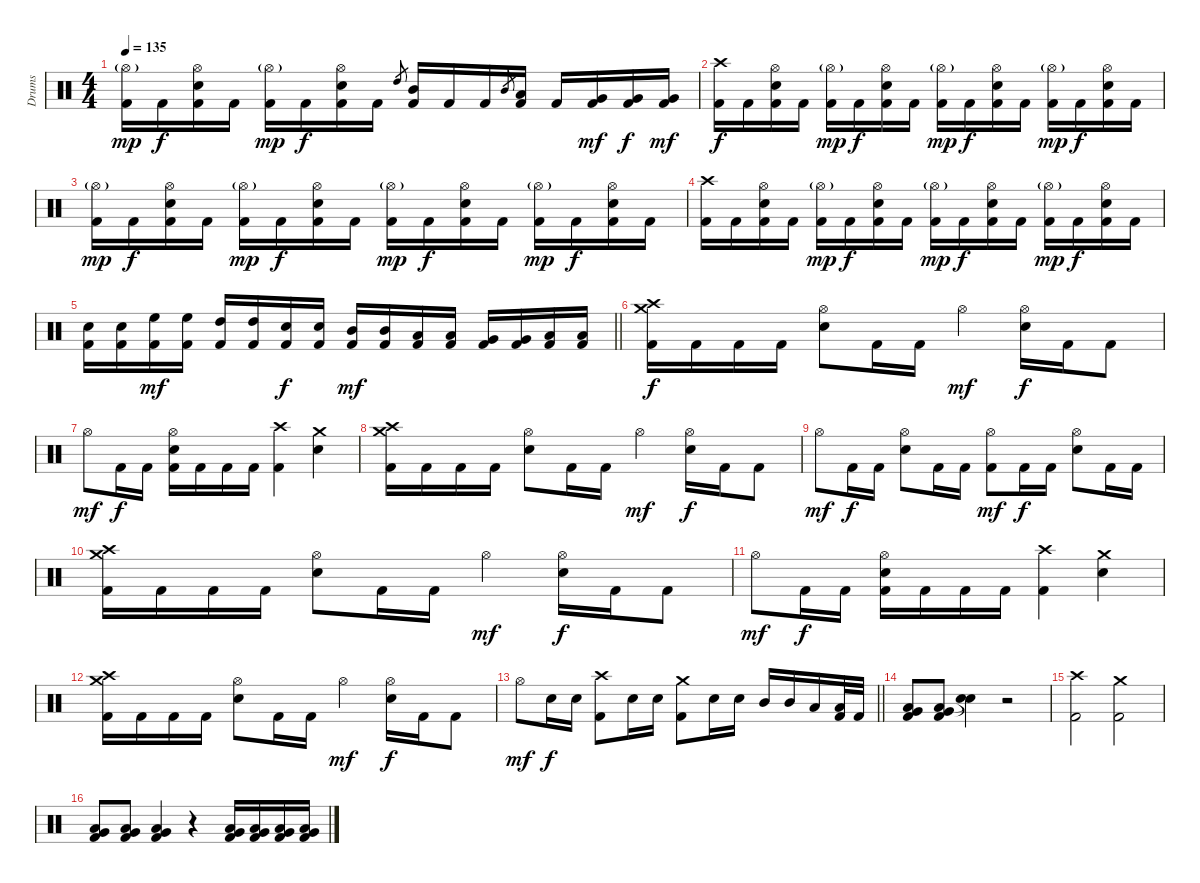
\track ("Drums" "Drums") {instrument percussion}
\staff {score}
\articulation defaults
\ts (4 4)
\tempo 135
\clef neutral
\ks c
("Hi-Hat (open)"{g} "Kick (hit) 2").16{dy mp} "Kick (hit) 2".16{dy f} ("Hi-Hat (open)" "Electric Snare (hit)" "Kick (hit) 2").16 "Kick (hit) 2".16 ("Hi-Hat (open)"{g} "Kick (hit) 2").16{dy mp} "Kick (hit) 2".16{dy f} ("Hi-Hat (open)" "Electric Snare (hit)" "Kick (hit) 2").16 "Kick (hit) 2".16 "High Tom (hit)".8{gr} ("Mid Tom (hit)" "Kick (hit) 2").16 "Kick (hit) 2".16 "Kick (hit) 2".16 "Mid Tom (hit)".8{gr} ("Low Tom (hit)" "Kick (hit) 2").16 "Kick (hit) 2".16 ("Very Low Tom (hit)" "Kick (hit) 2").16{dy mf} ("Very Low Tom (hit)" "Kick (hit) 2").16{dy f} ("Very Low Tom (hit)" "Kick (hit) 2").16{dy mf} |
("Crash high (hit)" "Kick (hit) 2").16{dy f} "Kick (hit) 2".16 ("Hi-Hat (open)" "Electric Snare (hit)" "Kick (hit) 2").16 "Kick (hit) 2".16 ("Hi-Hat (open)"{g} "Kick (hit) 2").16{dy mp} "Kick (hit) 2".16{dy f} ("Hi-Hat (open)" "Electric Snare (hit)" "Kick (hit) 2").16 "Kick (hit) 2".16 ("Hi-Hat (open)"{g} "Kick (hit) 2").16{dy mp} "Kick (hit) 2".16{dy f} ("Hi-Hat (open)" "Electric Snare (hit)" "Kick (hit) 2").16 "Kick (hit) 2".16 ("Hi-Hat (open)"{g} "Kick (hit) 2").16{dy mp} "Kick (hit) 2".16{dy f} ("Hi-Hat (open)" "Electric Snare (hit)" "Kick (hit) 2").16 "Kick (hit) 2".16 |
("Hi-Hat (open)"{g} "Kick (hit) 2").16{dy mp} "Kick (hit) 2".16{dy f} ("Hi-Hat (open)" "Electric Snare (hit)" "Kick (hit) 2").16 "Kick (hit) 2".16 ("Hi-Hat (open)"{g} "Kick (hit) 2").16{dy mp} "Kick (hit) 2".16{dy f} ("Hi-Hat (open)" "Electric Snare (hit)" "Kick (hit) 2").16 "Kick (hit) 2".16 ("Hi-Hat (open)"{g} "Kick (hit) 2").16{dy mp} "Kick (hit) 2".16{dy f} ("Hi-Hat (open)" "Electric Snare (hit)" "Kick (hit) 2").16 "Kick (hit) 2".16 ("Hi-Hat (open)"{g} "Kick (hit) 2").16{dy mp} "Kick (hit) 2".16{dy f} ("Hi-Hat (open)" "Electric Snare (hit)" "Kick (hit) 2").16 "Kick (hit) 2".16 |
("Crash high (hit)" "Kick (hit) 2").16 "Kick (hit) 2".16 ("Hi-Hat (open)" "Electric Snare (hit)" "Kick (hit) 2").16 "Kick (hit) 2".16 ("Hi-Hat (open)"{g} "Kick (hit) 2").16{dy mp} "Kick (hit) 2".16{dy f} ("Hi-Hat (open)" "Electric Snare (hit)" "Kick (hit) 2").16 "Kick (hit) 2".16 ("Hi-Hat (open)"{g} "Kick (hit) 2").16{dy mp} "Kick (hit) 2".16{dy f} ("Hi-Hat (open)" "Electric Snare (hit)" "Kick (hit) 2").16 "Kick (hit) 2".16 ("Hi-Hat (open)"{g} "Kick (hit) 2").16{dy mp} "Kick (hit) 2".16{dy f} ("Hi-Hat (open)" "Electric Snare (hit)" "Kick (hit) 2").16 "Kick (hit) 2".16 |
\barLineRight lightlight
("Electric Snare (hit)" "Kick (hit) 2").16 ("Electric Snare (hit)" "Kick (hit) 2").16 ("High Floor Tom (hit)" "Kick (hit) 2").16{dy mf} ("High Floor Tom (hit)" "Kick (hit) 2").16 ("High Tom (hit)" "Kick (hit) 2").16 ("High Tom (hit)" "Kick (hit) 2").16 ("Electric Snare (hit)" "Kick (hit) 2").16{dy f} ("Electric Snare (hit)" "Kick (hit) 2").16 ("Mid Tom (hit)" "Kick (hit) 2").16{dy mf} ("Mid Tom (hit)" "Kick (hit) 2").16 ("Low Tom (hit)" "Kick (hit) 2").16 ("Low Tom (hit)" "Kick (hit) 2").16 ("Very Low Tom (hit)" "Kick (hit) 2").16 ("Very Low Tom (hit)" "Kick (hit) 2").16 ("Low Floor Tom (hit)" "Kick (hit) 2").16 ("Low Floor Tom (hit)" "Kick (hit) 2").16 |
("Crash high (hit)" "Crash medium (hit)" "Kick (hit) 2").16{dy f} "Kick (hit) 2".16 "Kick (hit) 2".16 "Kick (hit) 2".16 ("Hi-Hat (open)" "Electric Snare (hit)").8 "Kick (hit) 2".16 "Kick (hit) 2".16 "Hi-Hat (open)".4{dy mf} ("Hi-Hat (open)" "Electric Snare (hit)").16{dy f} "Kick (hit) 2".16 "Kick (hit) 2".8 |
"Hi-Hat (open)".8{dy mf} "Kick (hit) 2".16{dy f} "Kick (hit) 2".16 ("Hi-Hat (open)" "Electric Snare (hit)" "Kick (hit) 2").16 "Kick (hit) 2".16 "Kick (hit) 2".16 "Kick (hit) 2".16 ("Crash high (hit)" "Kick (hit) 2").4 ("Crash medium (hit)" "Electric Snare (hit)").4 |
("Crash high (hit)" "Crash medium (hit)" "Kick (hit) 2").16 "Kick (hit) 2".16 "Kick (hit) 2".16 "Kick (hit) 2".16 ("Hi-Hat (open)" "Electric Snare (hit)").8 "Kick (hit) 2".16 "Kick (hit) 2".16 "Hi-Hat (open)".4{dy mf} ("Hi-Hat (open)" "Electric Snare (hit)").16{dy f} "Kick (hit) 2".16 "Kick (hit) 2".8 |
"Hi-Hat (open)".8{dy mf} "Kick (hit) 2".16{dy f} "Kick (hit) 2".16 ("Hi-Hat (open)" "Electric Snare (hit)").8 "Kick (hit) 2".16 "Kick (hit) 2".16 ("Hi-Hat (open)" "Kick (hit) 2").8{dy mf} "Kick (hit) 2".16{dy f} "Kick (hit) 2".16 ("Hi-Hat (open)" "Electric Snare (hit)").8 "Kick (hit) 2".16 "Kick (hit) 2".16 |
("Crash high (hit)" "Crash medium (hit)" "Kick (hit) 2").16 "Kick (hit) 2".16 "Kick (hit) 2".16 "Kick (hit) 2".16 ("Hi-Hat (open)" "Electric Snare (hit)").8 "Kick (hit) 2".16 "Kick (hit) 2".16 "Hi-Hat (open)".4{dy mf} ("Hi-Hat (open)" "Electric Snare (hit)").16{dy f} "Kick (hit) 2".16 "Kick (hit) 2".8 |
"Hi-Hat (open)".8{dy mf} "Kick (hit) 2".16{dy f} "Kick (hit) 2".16 ("Hi-Hat (open)" "Electric Snare (hit)" "Kick (hit) 2").16 "Kick (hit) 2".16 "Kick (hit) 2".16 "Kick (hit) 2".16 ("Crash high (hit)" "Kick (hit) 2").4 ("Crash medium (hit)" "Electric Snare (hit)").4 |
("Crash high (hit)" "Crash medium (hit)" "Kick (hit) 2").16 "Kick (hit) 2".16 "Kick (hit) 2".16 "Kick (hit) 2".16 ("Hi-Hat (open)" "Electric Snare (hit)").8 "Kick (hit) 2".16 "Kick (hit) 2".16 "Hi-Hat (open)".4{dy mf} ("Hi-Hat (open)" "Electric Snare (hit)").16{dy f} "Kick (hit) 2".16 "Kick (hit) 2".8 |
\barLineRight lightlight "Hi-Hat (open)".8{dy mf} "Electric Snare (hit)".16{dy f} "Electric Snare (hit)".16
("Crash high (hit)" "Kick (hit) 2").8 "Electric Snare (hit)".16 "Electric Snare (hit)".16 ("Crash medium (hit)" "Kick (hit) 2").8 "Electric Snare (hit)".16 "Electric Snare (hit)".16 "Mid Tom (hit)".16 "Mid Tom (hit)".16 "Low Tom (hit)".16 ("Low Tom (hit)" "Kick (hit) 2").32 "Kick (hit) 2".32 |
("Low Tom (hit)" "Very Low Tom (hit)" "Kick (hit) 2").8 ("Low Tom (hit)" "Very Low Tom (hit)" "Kick (hit) 2").8 ("Snare (hit)"{t} "Snare (hit)"{t}).4 r.2 |
("Crash high (hit)" "Kick (hit) 2").2 ("Crash medium (hit)" "Kick (hit) 2").2 |
("Low Tom (hit)" "Very Low Tom (hit)" "Kick (hit) 2").8 ("Low Tom (hit)" "Very Low Tom (hit)" "Kick (hit) 2").8 ("Low Tom (hit)" "Very Low Tom (hit)" "Kick (hit) 2").4 r.4 ("Low Tom (hit)" "Very Low Tom (hit)" "Kick (hit) 2").16 ("Low Tom (hit)" "Very Low Tom (hit)" "Kick (hit) 2").16 ("Low Tom (hit)" "Very Low Tom (hit)" "Kick (hit) 2").16 ("Low Tom (hit)" "Very Low Tom (hit)" "Kick (hit) 2").16
